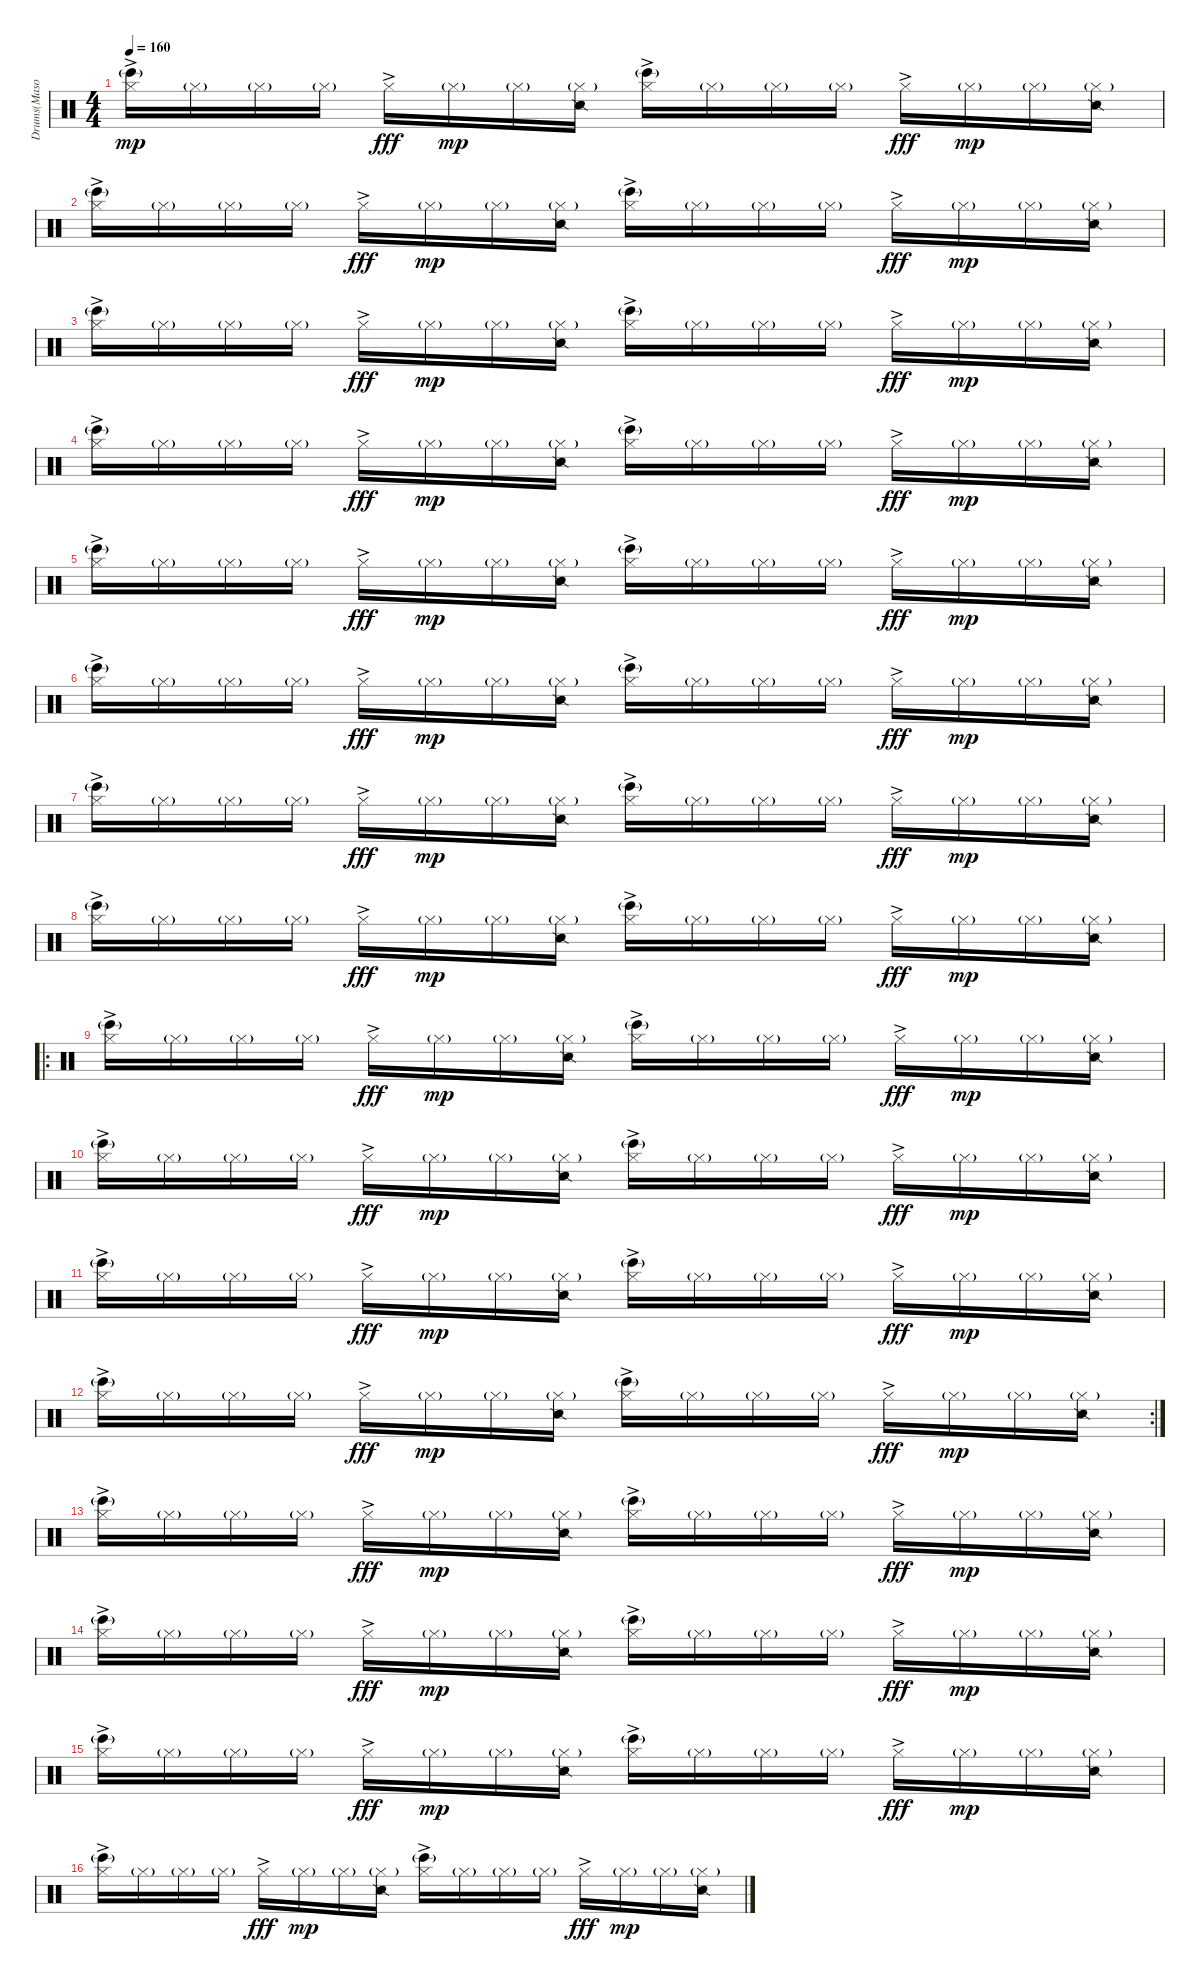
\track ("Drums(Mason)" "Drums(Maso") {instrument percussion}
\staff {score}
\articulation defaults
\ts (4 4)
\tempo 160
\clef neutral
\ks c
("Hi-Hat (closed)"{ac} "Bongo High (hit)"{g}).16{dy mp} "Hi-Hat (closed)"{g}.16 "Hi-Hat (closed)"{g}.16 "Hi-Hat (closed)"{g}.16 "Hi-Hat (closed)"{ac}.16{dy fff} "Hi-Hat (closed)"{g}.16{dy mp} "Hi-Hat (closed)"{g}.16 ("Hi-Hat (closed)"{g} "Snare (side stick) 2").16 ("Hi-Hat (closed)"{ac} "Bongo High (hit)"{g}).16 "Hi-Hat (closed)"{g}.16 "Hi-Hat (closed)"{g}.16 "Hi-Hat (closed)"{g}.16 "Hi-Hat (closed)"{ac}.16{dy fff} "Hi-Hat (closed)"{g}.16{dy mp} "Hi-Hat (closed)"{g}.16 ("Hi-Hat (closed)"{g} "Snare (side stick) 2").16 |
("Hi-Hat (closed)"{ac} "Bongo High (hit)"{g}).16 "Hi-Hat (closed)"{g}.16 "Hi-Hat (closed)"{g}.16 "Hi-Hat (closed)"{g}.16 "Hi-Hat (closed)"{ac}.16{dy fff} "Hi-Hat (closed)"{g}.16{dy mp} "Hi-Hat (closed)"{g}.16 ("Hi-Hat (closed)"{g} "Snare (side stick) 2").16 ("Hi-Hat (closed)"{ac} "Bongo High (hit)"{g}).16 "Hi-Hat (closed)"{g}.16 "Hi-Hat (closed)"{g}.16 "Hi-Hat (closed)"{g}.16 "Hi-Hat (closed)"{ac}.16{dy fff} "Hi-Hat (closed)"{g}.16{dy mp} "Hi-Hat (closed)"{g}.16 ("Hi-Hat (closed)"{g} "Snare (side stick) 2").16 |
("Hi-Hat (closed)"{ac} "Bongo High (hit)"{g}).16 "Hi-Hat (closed)"{g}.16 "Hi-Hat (closed)"{g}.16 "Hi-Hat (closed)"{g}.16 "Hi-Hat (closed)"{ac}.16{dy fff} "Hi-Hat (closed)"{g}.16{dy mp} "Hi-Hat (closed)"{g}.16 ("Hi-Hat (closed)"{g} "Snare (side stick) 2").16 ("Hi-Hat (closed)"{ac} "Bongo High (hit)"{g}).16 "Hi-Hat (closed)"{g}.16 "Hi-Hat (closed)"{g}.16 "Hi-Hat (closed)"{g}.16 "Hi-Hat (closed)"{ac}.16{dy fff} "Hi-Hat (closed)"{g}.16{dy mp} "Hi-Hat (closed)"{g}.16 ("Hi-Hat (closed)"{g} "Snare (side stick) 2").16 |
("Hi-Hat (closed)"{ac} "Bongo High (hit)"{g}).16 "Hi-Hat (closed)"{g}.16 "Hi-Hat (closed)"{g}.16 "Hi-Hat (closed)"{g}.16 "Hi-Hat (closed)"{ac}.16{dy fff} "Hi-Hat (closed)"{g}.16{dy mp} "Hi-Hat (closed)"{g}.16 ("Hi-Hat (closed)"{g} "Snare (side stick) 2").16 ("Hi-Hat (closed)"{ac} "Bongo High (hit)"{g}).16 "Hi-Hat (closed)"{g}.16 "Hi-Hat (closed)"{g}.16 "Hi-Hat (closed)"{g}.16 "Hi-Hat (closed)"{ac}.16{dy fff} "Hi-Hat (closed)"{g}.16{dy mp} "Hi-Hat (closed)"{g}.16 ("Hi-Hat (closed)"{g} "Snare (side stick) 2").16 |
("Hi-Hat (closed)"{ac} "Bongo High (hit)"{g}).16 "Hi-Hat (closed)"{g}.16 "Hi-Hat (closed)"{g}.16 "Hi-Hat (closed)"{g}.16 "Hi-Hat (closed)"{ac}.16{dy fff} "Hi-Hat (closed)"{g}.16{dy mp} "Hi-Hat (closed)"{g}.16 ("Hi-Hat (closed)"{g} "Snare (side stick) 2").16 ("Hi-Hat (closed)"{ac} "Bongo High (hit)"{g}).16 "Hi-Hat (closed)"{g}.16 "Hi-Hat (closed)"{g}.16 "Hi-Hat (closed)"{g}.16 "Hi-Hat (closed)"{ac}.16{dy fff} "Hi-Hat (closed)"{g}.16{dy mp} "Hi-Hat (closed)"{g}.16 ("Hi-Hat (closed)"{g} "Snare (side stick) 2").16 |
("Hi-Hat (closed)"{ac} "Bongo High (hit)"{g}).16 "Hi-Hat (closed)"{g}.16 "Hi-Hat (closed)"{g}.16 "Hi-Hat (closed)"{g}.16 "Hi-Hat (closed)"{ac}.16{dy fff} "Hi-Hat (closed)"{g}.16{dy mp} "Hi-Hat (closed)"{g}.16 ("Hi-Hat (closed)"{g} "Snare (side stick) 2").16 ("Hi-Hat (closed)"{ac} "Bongo High (hit)"{g}).16 "Hi-Hat (closed)"{g}.16 "Hi-Hat (closed)"{g}.16 "Hi-Hat (closed)"{g}.16 "Hi-Hat (closed)"{ac}.16{dy fff} "Hi-Hat (closed)"{g}.16{dy mp} "Hi-Hat (closed)"{g}.16 ("Hi-Hat (closed)"{g} "Snare (side stick) 2").16 |
("Hi-Hat (closed)"{ac} "Bongo High (hit)"{g}).16 "Hi-Hat (closed)"{g}.16 "Hi-Hat (closed)"{g}.16 "Hi-Hat (closed)"{g}.16 "Hi-Hat (closed)"{ac}.16{dy fff} "Hi-Hat (closed)"{g}.16{dy mp} "Hi-Hat (closed)"{g}.16 ("Hi-Hat (closed)"{g} "Snare (side stick) 2").16 ("Hi-Hat (closed)"{ac} "Bongo High (hit)"{g}).16 "Hi-Hat (closed)"{g}.16 "Hi-Hat (closed)"{g}.16 "Hi-Hat (closed)"{g}.16 "Hi-Hat (closed)"{ac}.16{dy fff} "Hi-Hat (closed)"{g}.16{dy mp} "Hi-Hat (closed)"{g}.16 ("Hi-Hat (closed)"{g} "Snare (side stick) 2").16 |
("Hi-Hat (closed)"{ac} "Bongo High (hit)"{g}).16 "Hi-Hat (closed)"{g}.16 "Hi-Hat (closed)"{g}.16 "Hi-Hat (closed)"{g}.16 "Hi-Hat (closed)"{ac}.16{dy fff} "Hi-Hat (closed)"{g}.16{dy mp} "Hi-Hat (closed)"{g}.16 ("Hi-Hat (closed)"{g} "Snare (side stick) 2").16 ("Hi-Hat (closed)"{ac} "Bongo High (hit)"{g}).16 "Hi-Hat (closed)"{g}.16 "Hi-Hat (closed)"{g}.16 "Hi-Hat (closed)"{g}.16 "Hi-Hat (closed)"{ac}.16{dy fff} "Hi-Hat (closed)"{g}.16{dy mp} "Hi-Hat (closed)"{g}.16 ("Hi-Hat (closed)"{g} "Snare (side stick) 2").16 |
\ro
("Hi-Hat (closed)"{ac} "Bongo High (hit)"{g}).16 "Hi-Hat (closed)"{g}.16 "Hi-Hat (closed)"{g}.16 "Hi-Hat (closed)"{g}.16 "Hi-Hat (closed)"{ac}.16{dy fff} "Hi-Hat (closed)"{g}.16{dy mp} "Hi-Hat (closed)"{g}.16 ("Hi-Hat (closed)"{g} "Snare (side stick) 2").16 ("Hi-Hat (closed)"{ac} "Bongo High (hit)"{g}).16 "Hi-Hat (closed)"{g}.16 "Hi-Hat (closed)"{g}.16 "Hi-Hat (closed)"{g}.16 "Hi-Hat (closed)"{ac}.16{dy fff} "Hi-Hat (closed)"{g}.16{dy mp} "Hi-Hat (closed)"{g}.16 ("Hi-Hat (closed)"{g} "Snare (side stick) 2").16 |
("Hi-Hat (closed)"{ac} "Bongo High (hit)"{g}).16 "Hi-Hat (closed)"{g}.16 "Hi-Hat (closed)"{g}.16 "Hi-Hat (closed)"{g}.16 "Hi-Hat (closed)"{ac}.16{dy fff} "Hi-Hat (closed)"{g}.16{dy mp} "Hi-Hat (closed)"{g}.16 ("Hi-Hat (closed)"{g} "Snare (side stick) 2").16 ("Hi-Hat (closed)"{ac} "Bongo High (hit)"{g}).16 "Hi-Hat (closed)"{g}.16 "Hi-Hat (closed)"{g}.16 "Hi-Hat (closed)"{g}.16 "Hi-Hat (closed)"{ac}.16{dy fff} "Hi-Hat (closed)"{g}.16{dy mp} "Hi-Hat (closed)"{g}.16 ("Hi-Hat (closed)"{g} "Snare (side stick) 2").16 |
("Hi-Hat (closed)"{ac} "Bongo High (hit)"{g}).16 "Hi-Hat (closed)"{g}.16 "Hi-Hat (closed)"{g}.16 "Hi-Hat (closed)"{g}.16 "Hi-Hat (closed)"{ac}.16{dy fff} "Hi-Hat (closed)"{g}.16{dy mp} "Hi-Hat (closed)"{g}.16 ("Hi-Hat (closed)"{g} "Snare (side stick) 2").16 ("Hi-Hat (closed)"{ac} "Bongo High (hit)"{g}).16 "Hi-Hat (closed)"{g}.16 "Hi-Hat (closed)"{g}.16 "Hi-Hat (closed)"{g}.16 "Hi-Hat (closed)"{ac}.16{dy fff} "Hi-Hat (closed)"{g}.16{dy mp} "Hi-Hat (closed)"{g}.16 ("Hi-Hat (closed)"{g} "Snare (side stick) 2").16 |
\rc 2
("Hi-Hat (closed)"{ac} "Bongo High (hit)"{g}).16 "Hi-Hat (closed)"{g}.16 "Hi-Hat (closed)"{g}.16 "Hi-Hat (closed)"{g}.16 "Hi-Hat (closed)"{ac}.16{dy fff} "Hi-Hat (closed)"{g}.16{dy mp} "Hi-Hat (closed)"{g}.16 ("Hi-Hat (closed)"{g} "Snare (side stick) 2").16 ("Hi-Hat (closed)"{ac} "Bongo High (hit)"{g}).16 "Hi-Hat (closed)"{g}.16 "Hi-Hat (closed)"{g}.16 "Hi-Hat (closed)"{g}.16 "Hi-Hat (closed)"{ac}.16{dy fff} "Hi-Hat (closed)"{g}.16{dy mp} "Hi-Hat (closed)"{g}.16 ("Hi-Hat (closed)"{g} "Snare (side stick) 2").16 |
("Hi-Hat (closed)"{ac} "Bongo High (hit)"{g}).16 "Hi-Hat (closed)"{g}.16 "Hi-Hat (closed)"{g}.16 "Hi-Hat (closed)"{g}.16 "Hi-Hat (closed)"{ac}.16{dy fff} "Hi-Hat (closed)"{g}.16{dy mp} "Hi-Hat (closed)"{g}.16 ("Hi-Hat (closed)"{g} "Snare (side stick) 2").16 ("Hi-Hat (closed)"{ac} "Bongo High (hit)"{g}).16 "Hi-Hat (closed)"{g}.16 "Hi-Hat (closed)"{g}.16 "Hi-Hat (closed)"{g}.16 "Hi-Hat (closed)"{ac}.16{dy fff} "Hi-Hat (closed)"{g}.16{dy mp} "Hi-Hat (closed)"{g}.16 ("Hi-Hat (closed)"{g} "Snare (side stick) 2").16 |
("Hi-Hat (closed)"{ac} "Bongo High (hit)"{g}).16 "Hi-Hat (closed)"{g}.16 "Hi-Hat (closed)"{g}.16 "Hi-Hat (closed)"{g}.16 "Hi-Hat (closed)"{ac}.16{dy fff} "Hi-Hat (closed)"{g}.16{dy mp} "Hi-Hat (closed)"{g}.16 ("Hi-Hat (closed)"{g} "Snare (side stick) 2").16 ("Hi-Hat (closed)"{ac} "Bongo High (hit)"{g}).16 "Hi-Hat (closed)"{g}.16 "Hi-Hat (closed)"{g}.16 "Hi-Hat (closed)"{g}.16 "Hi-Hat (closed)"{ac}.16{dy fff} "Hi-Hat (closed)"{g}.16{dy mp} "Hi-Hat (closed)"{g}.16 ("Hi-Hat (closed)"{g} "Snare (side stick) 2").16 |
("Hi-Hat (closed)"{ac} "Bongo High (hit)"{g}).16 "Hi-Hat (closed)"{g}.16 "Hi-Hat (closed)"{g}.16 "Hi-Hat (closed)"{g}.16 "Hi-Hat (closed)"{ac}.16{dy fff} "Hi-Hat (closed)"{g}.16{dy mp} "Hi-Hat (closed)"{g}.16 ("Hi-Hat (closed)"{g} "Snare (side stick) 2").16 ("Hi-Hat (closed)"{ac} "Bongo High (hit)"{g}).16 "Hi-Hat (closed)"{g}.16 "Hi-Hat (closed)"{g}.16 "Hi-Hat (closed)"{g}.16 "Hi-Hat (closed)"{ac}.16{dy fff} "Hi-Hat (closed)"{g}.16{dy mp} "Hi-Hat (closed)"{g}.16 ("Hi-Hat (closed)"{g} "Snare (side stick) 2").16 |
("Hi-Hat (closed)"{ac} "Bongo High (hit)"{g}).16 "Hi-Hat (closed)"{g}.16 "Hi-Hat (closed)"{g}.16 "Hi-Hat (closed)"{g}.16 "Hi-Hat (closed)"{ac}.16{dy fff} "Hi-Hat (closed)"{g}.16{dy mp} "Hi-Hat (closed)"{g}.16 ("Hi-Hat (closed)"{g} "Snare (side stick) 2").16 ("Hi-Hat (closed)"{ac} "Bongo High (hit)"{g}).16 "Hi-Hat (closed)"{g}.16 "Hi-Hat (closed)"{g}.16 "Hi-Hat (closed)"{g}.16 "Hi-Hat (closed)"{ac}.16{dy fff} "Hi-Hat (closed)"{g}.16{dy mp} "Hi-Hat (closed)"{g}.16 ("Hi-Hat (closed)"{g} "Snare (side stick) 2").16
